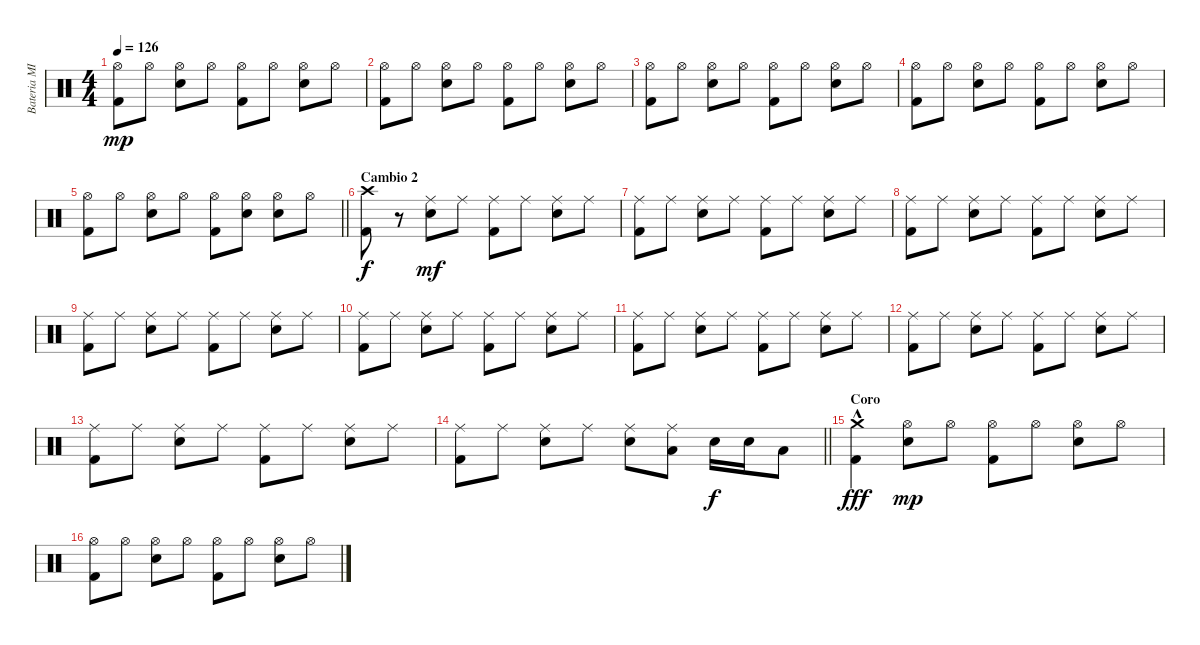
\track ("Bateria MIDI" "Bateria MI") {instrument percussion}
\staff {score}
\articulation defaults
\ts (4 4)
\tempo 126
\clef neutral
\ks c
("Hi-Hat (open)" "Kick (hit) 2").8{dy mp} "Hi-Hat (open)".8 ("Hi-Hat (open)" "Snare (hit) 2").8 "Hi-Hat (open)".8 ("Hi-Hat (open)" "Kick (hit) 2").8 "Hi-Hat (open)".8 ("Hi-Hat (open)" "Snare (hit) 2").8 "Hi-Hat (open)".8 |
("Hi-Hat (open)" "Kick (hit) 2").8 "Hi-Hat (open)".8 ("Hi-Hat (open)" "Snare (hit) 2").8 "Hi-Hat (open)".8 ("Hi-Hat (open)" "Kick (hit) 2").8 "Hi-Hat (open)".8 ("Hi-Hat (open)" "Snare (hit) 2").8 "Hi-Hat (open)".8 |
("Hi-Hat (open)" "Kick (hit) 2").8 "Hi-Hat (open)".8 ("Hi-Hat (open)" "Snare (hit) 2").8 "Hi-Hat (open)".8 ("Hi-Hat (open)" "Kick (hit) 2").8 "Hi-Hat (open)".8 ("Hi-Hat (open)" "Snare (hit) 2").8 "Hi-Hat (open)".8 |
("Hi-Hat (open)" "Kick (hit) 2").8 "Hi-Hat (open)".8 ("Hi-Hat (open)" "Snare (hit) 2").8 "Hi-Hat (open)".8 ("Hi-Hat (open)" "Kick (hit) 2").8 "Hi-Hat (open)".8 ("Hi-Hat (open)" "Snare (hit) 2").8 "Hi-Hat (open)".8 |
\barLineRight lightlight
("Hi-Hat (open)" "Kick (hit) 2").8 "Hi-Hat (open)".8 ("Hi-Hat (open)" "Snare (hit) 2").8 "Hi-Hat (open)".8 ("Hi-Hat (open)" "Kick (hit) 2").8 ("Hi-Hat (open)" "Snare (hit) 2").8 ("Hi-Hat (open)" "Snare (hit) 2").8 "Hi-Hat (open)".8 |
\section ("" "Cambio 2")
("Crash high (hit)" "Kick (hit) 2").8{dy f} r.8 ("Ride (middle)" "Snare (hit) 2").8{dy mf} "Ride (middle)".8 ("Ride (middle)" "Kick (hit) 2").8 "Ride (middle)".8 ("Ride (middle)" "Snare (hit) 2").8 "Ride (middle)".8 |
("Ride (middle)" "Kick (hit) 2").8 "Ride (middle)".8 ("Ride (middle)" "Snare (hit) 2").8 "Ride (middle)".8 ("Ride (middle)" "Kick (hit) 2").8 "Ride (middle)".8 ("Ride (middle)" "Snare (hit) 2").8 "Ride (middle)".8 |
("Ride (middle)" "Kick (hit) 2").8 "Ride (middle)".8 ("Ride (middle)" "Snare (hit) 2").8 "Ride (middle)".8 ("Ride (middle)" "Kick (hit) 2").8 "Ride (middle)".8 ("Ride (middle)" "Snare (hit) 2").8 "Ride (middle)".8 |
("Ride (middle)" "Kick (hit) 2").8 "Ride (middle)".8 ("Ride (middle)" "Snare (hit) 2").8 "Ride (middle)".8 ("Ride (middle)" "Kick (hit) 2").8 "Ride (middle)".8 ("Ride (middle)" "Snare (hit) 2").8 "Ride (middle)".8 |
("Ride (middle)" "Kick (hit) 2").8 "Ride (middle)".8 ("Ride (middle)" "Snare (hit) 2").8 "Ride (middle)".8 ("Ride (middle)" "Kick (hit) 2").8 "Ride (middle)".8 ("Ride (middle)" "Snare (hit) 2").8 "Ride (middle)".8 |
("Ride (middle)" "Kick (hit) 2").8 "Ride (middle)".8 ("Ride (middle)" "Snare (hit) 2").8 "Ride (middle)".8 ("Ride (middle)" "Kick (hit) 2").8 "Ride (middle)".8 ("Ride (middle)" "Snare (hit) 2").8 "Ride (middle)".8 |
("Ride (middle)" "Kick (hit) 2").8 "Ride (middle)".8 ("Ride (middle)" "Snare (hit) 2").8 "Ride (middle)".8 ("Ride (middle)" "Kick (hit) 2").8 "Ride (middle)".8 ("Ride (middle)" "Snare (hit) 2").8 "Ride (middle)".8 |
("Ride (middle)" "Kick (hit) 2").8 "Ride (middle)".8 ("Ride (middle)" "Snare (hit) 2").8 "Ride (middle)".8 ("Ride (middle)" "Kick (hit) 2").8 "Ride (middle)".8 ("Ride (middle)" "Snare (hit) 2").8 "Ride (middle)".8 |
\barLineRight lightlight
("Ride (middle)" "Kick (hit) 2").8 "Ride (middle)".8 ("Ride (middle)" "Snare (hit) 2").8 "Ride (middle)".8 ("Ride (middle)" "Snare (hit) 2").8 ("Ride (middle)" "Low Tom (hit)").8 "Snare (hit) 2".16{dy f} "Snare (hit) 2".16 "Low Tom (hit)".8 |
\section ("" "Coro")
("Crash medium (hit)"{hac} "Kick (hit) 2").4{dy fff} ("Hi-Hat (open)" "Snare (hit) 2").8{dy mp} "Hi-Hat (open)".8 ("Hi-Hat (open)" "Kick (hit) 2").8 "Hi-Hat (open)".8 ("Hi-Hat (open)" "Snare (hit) 2").8 "Hi-Hat (open)".8 |
("Hi-Hat (open)" "Kick (hit) 2").8 "Hi-Hat (open)".8 ("Hi-Hat (open)" "Snare (hit) 2").8 "Hi-Hat (open)".8 ("Hi-Hat (open)" "Kick (hit) 2").8 "Hi-Hat (open)".8 ("Hi-Hat (open)" "Snare (hit) 2").8 "Hi-Hat (open)".8
